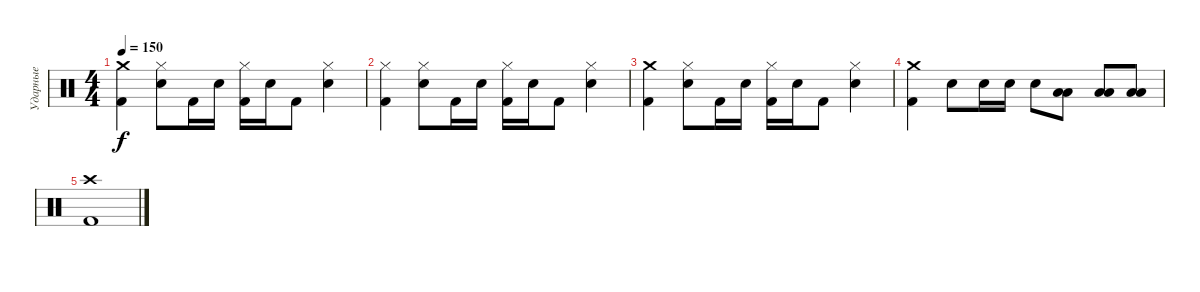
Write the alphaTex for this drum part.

\track ("Ударные" "Ударные") {instrument percussion}
\staff {score}
\articulation defaults
\ts (4 4)
\tempo 150
\clef neutral
\ks c
("Crash medium (hit)" "Kick (hit) 2").4{dy f} ("Hi-Hat (closed)" "Electric Snare (hit)").8 "Kick (hit) 2".16 "Electric Snare (hit)".16 ("Hi-Hat (closed)" "Kick (hit) 2").16 "Electric Snare (hit)".16 "Kick (hit) 2".8 ("Hi-Hat (closed)" "Electric Snare (hit)").4 |
("Hi-Hat (closed)" "Kick (hit) 2").4 ("Hi-Hat (closed)" "Electric Snare (hit)").8 "Kick (hit) 2".16 "Electric Snare (hit)".16 ("Hi-Hat (closed)" "Kick (hit) 2").16 "Electric Snare (hit)".16 "Kick (hit) 2".8 ("Hi-Hat (closed)" "Electric Snare (hit)").4 |
("Crash medium (hit)" "Kick (hit) 2").4 ("Hi-Hat (closed)" "Electric Snare (hit)").8 "Kick (hit) 2".16 "Electric Snare (hit)".16 ("Hi-Hat (closed)" "Kick (hit) 2").16 "Electric Snare (hit)".16 "Kick (hit) 2".8 ("Hi-Hat (closed)" "Electric Snare (hit)").4 |
("Crash medium (hit)" "Kick (hit) 2").4 "Electric Snare (hit)".8 "Electric Snare (hit)".16 "Electric Snare (hit)".16 "Electric Snare (hit)".8 ("Low Tom (hit)" "Low Floor Tom (hit)").8 ("Low Tom (hit)" "Low Floor Tom (hit)").8 ("Low Tom (hit)" "Low Floor Tom (hit)").8 |
("Kick (hit) 2" "Crash high (hit)").1
